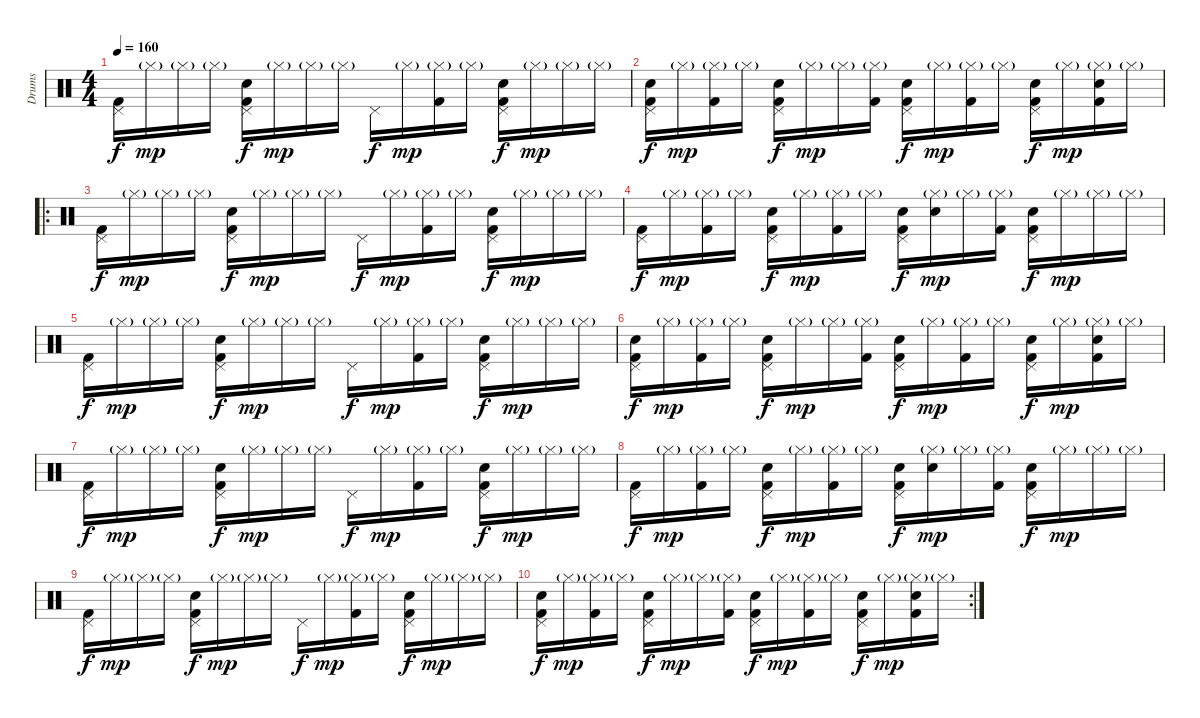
\track ("Drums" "Drums") {instrument percussion}
\staff {score}
\articulation defaults
\ts (4 4)
\tempo 160
\clef neutral
\ks c
("Pedal Hi-Hat (hit)" "Kick (hit) 2").16{dy f} "Hi-Hat (closed)"{g}.16{dy mp} "Hi-Hat (closed)"{g}.16 "Hi-Hat (closed)"{g}.16 ("Pedal Hi-Hat (hit)" "Electric Snare (hit)" "Kick (hit) 2").16{dy f} "Hi-Hat (closed)"{g}.16{dy mp} "Hi-Hat (closed)"{g}.16 "Hi-Hat (closed)"{g}.16 "Pedal Hi-Hat (hit)".16{dy f} "Hi-Hat (closed)"{g}.16{dy mp} ("Hi-Hat (closed)"{g} "Kick (hit) 2").16 "Hi-Hat (closed)"{g}.16 ("Pedal Hi-Hat (hit)" "Electric Snare (hit)" "Kick (hit) 2").16{dy f} "Hi-Hat (closed)"{g}.16{dy mp} "Hi-Hat (closed)"{g}.16 "Hi-Hat (closed)"{g}.16 |
("Pedal Hi-Hat (hit)" "Electric Snare (hit)" "Kick (hit) 2").16{dy f} "Hi-Hat (closed)"{g}.16{dy mp} ("Hi-Hat (closed)"{g} "Kick (hit) 2").16 "Hi-Hat (closed)"{g}.16 ("Pedal Hi-Hat (hit)" "Electric Snare (hit)" "Kick (hit) 2").16{dy f} "Hi-Hat (closed)"{g}.16{dy mp} "Hi-Hat (closed)"{g}.16 ("Hi-Hat (closed)"{g} "Kick (hit) 2").16 ("Pedal Hi-Hat (hit)" "Electric Snare (hit)" "Kick (hit) 2").16{dy f} "Hi-Hat (closed)"{g}.16{dy mp} ("Hi-Hat (closed)"{g} "Kick (hit) 2").16 "Hi-Hat (closed)"{g}.16 ("Pedal Hi-Hat (hit)" "Electric Snare (hit)" "Kick (hit) 2").16{dy f} "Hi-Hat (closed)"{g}.16{dy mp} ("Hi-Hat (closed)"{g} "Electric Snare (hit)" "Kick (hit) 2").16 "Hi-Hat (closed)"{g}.16 |
\ro
("Pedal Hi-Hat (hit)" "Kick (hit) 2").16{dy f} "Hi-Hat (closed)"{g}.16{dy mp} "Hi-Hat (closed)"{g}.16 "Hi-Hat (closed)"{g}.16 ("Pedal Hi-Hat (hit)" "Electric Snare (hit)" "Kick (hit) 2").16{dy f} "Hi-Hat (closed)"{g}.16{dy mp} "Hi-Hat (closed)"{g}.16 "Hi-Hat (closed)"{g}.16 "Pedal Hi-Hat (hit)".16{dy f} "Hi-Hat (closed)"{g}.16{dy mp} ("Hi-Hat (closed)"{g} "Kick (hit) 2").16 "Hi-Hat (closed)"{g}.16 ("Pedal Hi-Hat (hit)" "Electric Snare (hit)" "Kick (hit) 2").16{dy f} "Hi-Hat (closed)"{g}.16{dy mp} "Hi-Hat (closed)"{g}.16 "Hi-Hat (closed)"{g}.16 |
("Pedal Hi-Hat (hit)" "Kick (hit) 2").16{dy f} "Hi-Hat (closed)"{g}.16{dy mp} ("Hi-Hat (closed)"{g} "Kick (hit) 2").16 "Hi-Hat (closed)"{g}.16 ("Pedal Hi-Hat (hit)" "Electric Snare (hit)" "Kick (hit) 2").16{dy f} "Hi-Hat (closed)"{g}.16{dy mp} ("Hi-Hat (closed)"{g} "Kick (hit) 2").16 "Hi-Hat (closed)"{g}.16 ("Pedal Hi-Hat (hit)" "Electric Snare (hit)" "Kick (hit) 2").16{dy f} ("Hi-Hat (closed)"{g} "Electric Snare (hit)").16{dy mp} "Hi-Hat (closed)"{g}.16 ("Hi-Hat (closed)"{g} "Kick (hit) 2").16 ("Pedal Hi-Hat (hit)" "Electric Snare (hit)" "Kick (hit) 2").16{dy f} "Hi-Hat (closed)"{g}.16{dy mp} "Hi-Hat (closed)"{g}.16 "Hi-Hat (closed)"{g}.16 |
("Pedal Hi-Hat (hit)" "Kick (hit) 2").16{dy f} "Hi-Hat (closed)"{g}.16{dy mp} "Hi-Hat (closed)"{g}.16 "Hi-Hat (closed)"{g}.16 ("Pedal Hi-Hat (hit)" "Electric Snare (hit)" "Kick (hit) 2").16{dy f} "Hi-Hat (closed)"{g}.16{dy mp} "Hi-Hat (closed)"{g}.16 "Hi-Hat (closed)"{g}.16 "Pedal Hi-Hat (hit)".16{dy f} "Hi-Hat (closed)"{g}.16{dy mp} ("Hi-Hat (closed)"{g} "Kick (hit) 2").16 "Hi-Hat (closed)"{g}.16 ("Pedal Hi-Hat (hit)" "Electric Snare (hit)" "Kick (hit) 2").16{dy f} "Hi-Hat (closed)"{g}.16{dy mp} "Hi-Hat (closed)"{g}.16 "Hi-Hat (closed)"{g}.16 |
("Pedal Hi-Hat (hit)" "Electric Snare (hit)" "Kick (hit) 2").16{dy f} "Hi-Hat (closed)"{g}.16{dy mp} ("Hi-Hat (closed)"{g} "Kick (hit) 2").16 "Hi-Hat (closed)"{g}.16 ("Pedal Hi-Hat (hit)" "Electric Snare (hit)" "Kick (hit) 2").16{dy f} "Hi-Hat (closed)"{g}.16{dy mp} "Hi-Hat (closed)"{g}.16 ("Hi-Hat (closed)"{g} "Kick (hit) 2").16 ("Pedal Hi-Hat (hit)" "Electric Snare (hit)" "Kick (hit) 2").16{dy f} "Hi-Hat (closed)"{g}.16{dy mp} ("Hi-Hat (closed)"{g} "Kick (hit) 2").16 "Hi-Hat (closed)"{g}.16 ("Pedal Hi-Hat (hit)" "Electric Snare (hit)" "Kick (hit) 2").16{dy f} "Hi-Hat (closed)"{g}.16{dy mp} ("Hi-Hat (closed)"{g} "Electric Snare (hit)" "Kick (hit) 2").16 "Hi-Hat (closed)"{g}.16 |
("Pedal Hi-Hat (hit)" "Kick (hit) 2").16{dy f} "Hi-Hat (closed)"{g}.16{dy mp} "Hi-Hat (closed)"{g}.16 "Hi-Hat (closed)"{g}.16 ("Pedal Hi-Hat (hit)" "Electric Snare (hit)" "Kick (hit) 2").16{dy f} "Hi-Hat (closed)"{g}.16{dy mp} "Hi-Hat (closed)"{g}.16 "Hi-Hat (closed)"{g}.16 "Pedal Hi-Hat (hit)".16{dy f} "Hi-Hat (closed)"{g}.16{dy mp} ("Hi-Hat (closed)"{g} "Kick (hit) 2").16 "Hi-Hat (closed)"{g}.16 ("Pedal Hi-Hat (hit)" "Electric Snare (hit)" "Kick (hit) 2").16{dy f} "Hi-Hat (closed)"{g}.16{dy mp} "Hi-Hat (closed)"{g}.16 "Hi-Hat (closed)"{g}.16 |
("Pedal Hi-Hat (hit)" "Kick (hit) 2").16{dy f} "Hi-Hat (closed)"{g}.16{dy mp} ("Hi-Hat (closed)"{g} "Kick (hit) 2").16 "Hi-Hat (closed)"{g}.16 ("Pedal Hi-Hat (hit)" "Electric Snare (hit)" "Kick (hit) 2").16{dy f} "Hi-Hat (closed)"{g}.16{dy mp} ("Hi-Hat (closed)"{g} "Kick (hit) 2").16 "Hi-Hat (closed)"{g}.16 ("Pedal Hi-Hat (hit)" "Electric Snare (hit)" "Kick (hit) 2").16{dy f} ("Hi-Hat (closed)"{g} "Electric Snare (hit)").16{dy mp} "Hi-Hat (closed)"{g}.16 ("Hi-Hat (closed)"{g} "Kick (hit) 2").16 ("Pedal Hi-Hat (hit)" "Electric Snare (hit)" "Kick (hit) 2").16{dy f} "Hi-Hat (closed)"{g}.16{dy mp} "Hi-Hat (closed)"{g}.16 "Hi-Hat (closed)"{g}.16 |
("Pedal Hi-Hat (hit)" "Kick (hit) 2").16{dy f} "Hi-Hat (closed)"{g}.16{dy mp} "Hi-Hat (closed)"{g}.16 "Hi-Hat (closed)"{g}.16 ("Pedal Hi-Hat (hit)" "Electric Snare (hit)" "Kick (hit) 2").16{dy f} "Hi-Hat (closed)"{g}.16{dy mp} "Hi-Hat (closed)"{g}.16 "Hi-Hat (closed)"{g}.16 "Pedal Hi-Hat (hit)".16{dy f} "Hi-Hat (closed)"{g}.16{dy mp} ("Hi-Hat (closed)"{g} "Kick (hit) 2").16 "Hi-Hat (closed)"{g}.16 ("Pedal Hi-Hat (hit)" "Electric Snare (hit)" "Kick (hit) 2").16{dy f} "Hi-Hat (closed)"{g}.16{dy mp} "Hi-Hat (closed)"{g}.16 "Hi-Hat (closed)"{g}.16 |
\rc 2
("Pedal Hi-Hat (hit)" "Electric Snare (hit)" "Kick (hit) 2").16{dy f} "Hi-Hat (closed)"{g}.16{dy mp} ("Hi-Hat (closed)"{g} "Kick (hit) 2").16 "Hi-Hat (closed)"{g}.16 ("Pedal Hi-Hat (hit)" "Electric Snare (hit)" "Kick (hit) 2").16{dy f} "Hi-Hat (closed)"{g}.16{dy mp} "Hi-Hat (closed)"{g}.16 ("Hi-Hat (closed)"{g} "Kick (hit) 2").16 ("Pedal Hi-Hat (hit)" "Electric Snare (hit)" "Kick (hit) 2").16{dy f} "Hi-Hat (closed)"{g}.16{dy mp} ("Hi-Hat (closed)"{g} "Kick (hit) 2").16 "Hi-Hat (closed)"{g}.16 ("Pedal Hi-Hat (hit)" "Electric Snare (hit)" "Kick (hit) 2").16{dy f} "Hi-Hat (closed)"{g}.16{dy mp} ("Hi-Hat (closed)"{g} "Electric Snare (hit)" "Kick (hit) 2").16 "Hi-Hat (closed)"{g}.16
